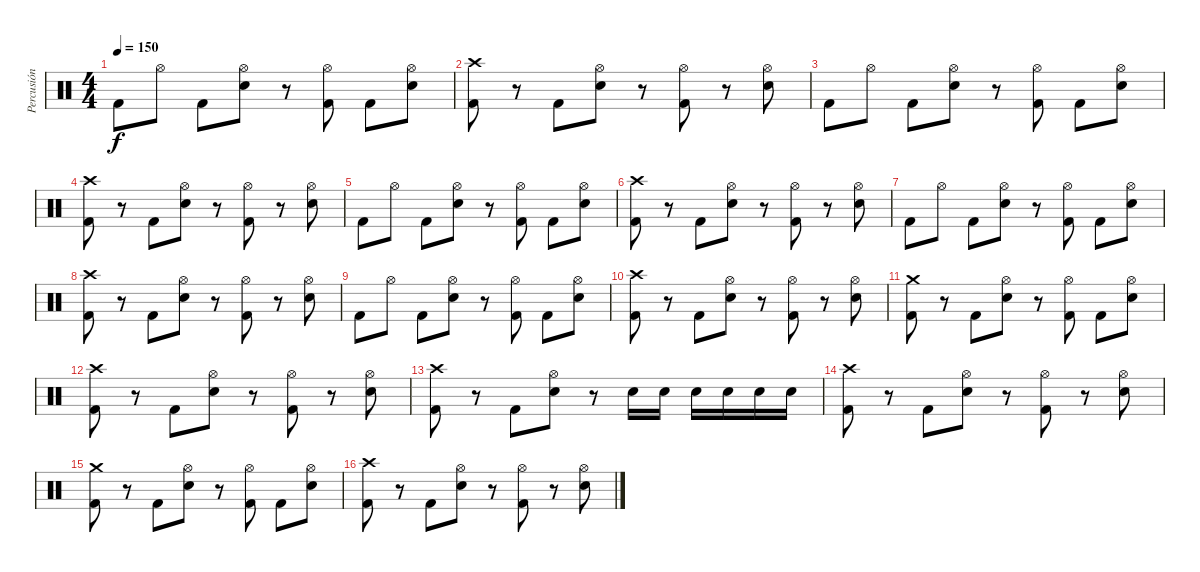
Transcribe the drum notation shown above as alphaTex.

\track ("Percusión" "Percusión") {instrument percussion}
\staff {score}
\articulation defaults
\ts (4 4)
\tempo 150
\clef neutral
\ks c "Kick (hit) 2".8{dy f} "Hi-Hat (open)".8 "Kick (hit) 2".8
("Hi-Hat (open)" "Electric Snare (hit)").8 r.8 ("Hi-Hat (open)" "Kick (hit) 2").8 "Kick (hit) 2".8 ("Hi-Hat (open)" "Electric Snare (hit)").8 |
("Crash high (hit)" "Kick (hit) 2").8 r.8 "Kick (hit) 2".8 ("Hi-Hat (open)" "Electric Snare (hit)").8 r.8 ("Hi-Hat (open)" "Kick (hit) 2").8 r.8 ("Hi-Hat (open)" "Electric Snare (hit)").8 |
"Kick (hit) 2".8 "Hi-Hat (open)".8 "Kick (hit) 2".8 ("Hi-Hat (open)" "Electric Snare (hit)").8 r.8 ("Hi-Hat (open)" "Kick (hit) 2").8 "Kick (hit) 2".8 ("Hi-Hat (open)" "Electric Snare (hit)").8 |
("Crash high (hit)" "Kick (hit) 2").8 r.8 "Kick (hit) 2".8 ("Hi-Hat (open)" "Electric Snare (hit)").8 r.8 ("Hi-Hat (open)" "Kick (hit) 2").8 r.8 ("Hi-Hat (open)" "Electric Snare (hit)").8 |
"Kick (hit) 2".8 "Hi-Hat (open)".8 "Kick (hit) 2".8 ("Hi-Hat (open)" "Electric Snare (hit)").8 r.8 ("Hi-Hat (open)" "Kick (hit) 2").8 "Kick (hit) 2".8 ("Hi-Hat (open)" "Electric Snare (hit)").8 |
("Crash high (hit)" "Kick (hit) 2").8 r.8 "Kick (hit) 2".8 ("Hi-Hat (open)" "Electric Snare (hit)").8 r.8 ("Hi-Hat (open)" "Kick (hit) 2").8 r.8 ("Hi-Hat (open)" "Electric Snare (hit)").8 |
"Kick (hit) 2".8 "Hi-Hat (open)".8 "Kick (hit) 2".8 ("Hi-Hat (open)" "Electric Snare (hit)").8 r.8 ("Hi-Hat (open)" "Kick (hit) 2").8 "Kick (hit) 2".8 ("Hi-Hat (open)" "Electric Snare (hit)").8 |
("Crash high (hit)" "Kick (hit) 2").8 r.8 "Kick (hit) 2".8 ("Hi-Hat (open)" "Electric Snare (hit)").8 r.8 ("Hi-Hat (open)" "Kick (hit) 2").8 r.8 ("Hi-Hat (open)" "Electric Snare (hit)").8 |
"Kick (hit) 2".8 "Hi-Hat (open)".8 "Kick (hit) 2".8 ("Hi-Hat (open)" "Electric Snare (hit)").8 r.8 ("Hi-Hat (open)" "Kick (hit) 2").8 "Kick (hit) 2".8 ("Hi-Hat (open)" "Electric Snare (hit)").8 |
("Crash high (hit)" "Kick (hit) 2").8 r.8 "Kick (hit) 2".8 ("Hi-Hat (open)" "Electric Snare (hit)").8 r.8 ("Hi-Hat (open)" "Kick (hit) 2").8 r.8 ("Hi-Hat (open)" "Electric Snare (hit)").8 |
("Crash medium (hit)" "Kick (hit) 2").8 r.8 "Kick (hit) 2".8 ("Hi-Hat (open)" "Electric Snare (hit)").8 r.8 ("Hi-Hat (open)" "Kick (hit) 2").8 "Kick (hit) 2".8 ("Hi-Hat (open)" "Electric Snare (hit)").8 |
("Crash high (hit)" "Kick (hit) 2").8 r.8 "Kick (hit) 2".8 ("Hi-Hat (open)" "Electric Snare (hit)").8 r.8 ("Hi-Hat (open)" "Kick (hit) 2").8 r.8 ("Hi-Hat (open)" "Electric Snare (hit)").8 |
("Crash high (hit)" "Kick (hit) 2").8 r.8 "Kick (hit) 2".8 ("Hi-Hat (open)" "Electric Snare (hit)").8 r.8 "Electric Snare (hit)".16 "Electric Snare (hit)".16 "Electric Snare (hit)".16 "Electric Snare (hit)".16 "Electric Snare (hit)".16 "Electric Snare (hit)".16 |
("Crash high (hit)" "Kick (hit) 2").8 r.8 "Kick (hit) 2".8 ("Hi-Hat (open)" "Electric Snare (hit)").8 r.8 ("Hi-Hat (open)" "Kick (hit) 2").8 r.8 ("Hi-Hat (open)" "Electric Snare (hit)").8 |
("Crash medium (hit)" "Kick (hit) 2").8 r.8 "Kick (hit) 2".8 ("Hi-Hat (open)" "Electric Snare (hit)").8 r.8 ("Hi-Hat (open)" "Kick (hit) 2").8 "Kick (hit) 2".8 ("Hi-Hat (open)" "Electric Snare (hit)").8 |
("Crash high (hit)" "Kick (hit) 2").8 r.8 "Kick (hit) 2".8 ("Hi-Hat (open)" "Electric Snare (hit)").8 r.8 ("Hi-Hat (open)" "Kick (hit) 2").8 r.8 ("Hi-Hat (open)" "Electric Snare (hit)").8
